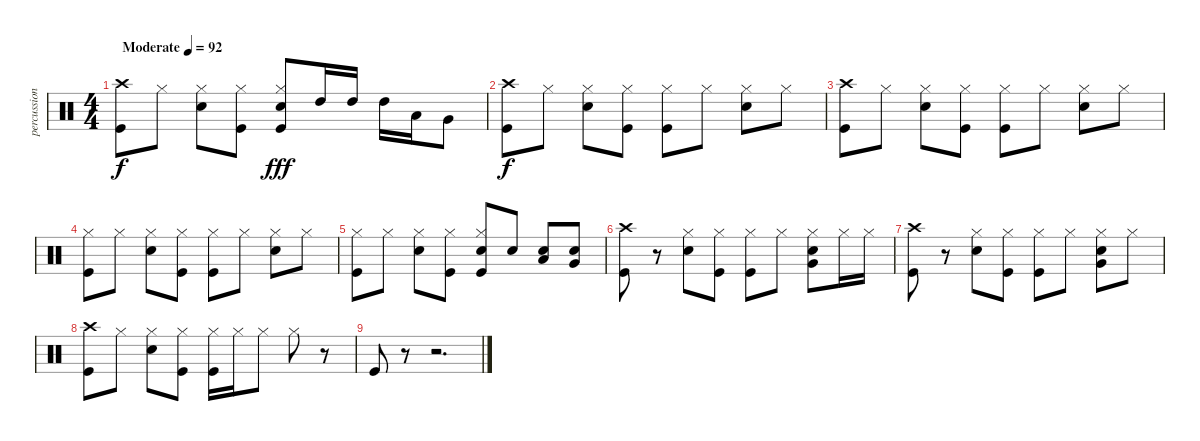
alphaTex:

\track ("percussion" "percussion") {instrument percussion}
\staff {score}
\articulation defaults
\ts (4 4)
\tempo (92 "Moderate")
\clef neutral
\ks c
("Crash high (hit)" "Kick (hit)").8{dy f} "Hi-Hat (closed)".8 ("Snare (hit) 2" "Hi-Hat (closed)").8 ("Hi-Hat (closed)" "Kick (hit)").8 ("Snare (hit) 2" "Hi-Hat (closed)" "Kick (hit)").8{dy fff} "High Tom (hit)".16 "High Tom (hit)".16 "High Tom (hit)".16 "Low Tom (hit)".16 "Very Low Tom (hit)".8 |
("Crash high (hit)" "Kick (hit)").8{dy f} "Hi-Hat (closed)".8 ("Snare (hit) 2" "Hi-Hat (closed)").8 ("Hi-Hat (closed)" "Kick (hit)").8 ("Hi-Hat (closed)" "Kick (hit)").8 "Hi-Hat (closed)".8 ("Snare (hit) 2" "Hi-Hat (closed)").8 "Hi-Hat (closed)".8 |
("Crash high (hit)" "Kick (hit)").8 "Hi-Hat (closed)".8 ("Snare (hit) 2" "Hi-Hat (closed)").8 ("Hi-Hat (closed)" "Kick (hit)").8 ("Hi-Hat (closed)" "Kick (hit)").8 "Hi-Hat (closed)".8 ("Snare (hit) 2" "Hi-Hat (closed)").8 "Hi-Hat (closed)".8 |
("Hi-Hat (closed)" "Kick (hit)").8 "Hi-Hat (closed)".8 ("Snare (hit) 2" "Hi-Hat (closed)").8 ("Hi-Hat (closed)" "Kick (hit)").8 ("Hi-Hat (closed)" "Kick (hit)").8 "Hi-Hat (closed)".8 ("Snare (hit) 2" "Hi-Hat (closed)").8 "Hi-Hat (closed)".8 |
("Hi-Hat (closed)" "Kick (hit)").8 "Hi-Hat (closed)".8 ("Snare (hit) 2" "Hi-Hat (closed)").8 ("Hi-Hat (closed)" "Kick (hit)").8 ("Snare (hit) 2" "Hi-Hat (closed)" "Kick (hit)").8 "Snare (hit) 2".8 ("Low Tom (hit)" "Snare (hit) 2").8 ("Very Low Tom (hit)" "Snare (hit) 2").8 |
("Crash high (hit)" "Kick (hit)").8 r.8 ("Snare (hit) 2" "Hi-Hat (closed)").8 ("Hi-Hat (closed)" "Kick (hit)").8 ("Hi-Hat (closed)" "Kick (hit)").8 "Hi-Hat (closed)".8 ("Very Low Tom (hit)" "Snare (hit) 2" "Hi-Hat (closed)").8 "Hi-Hat (closed)".16 "Hi-Hat (closed)".16 |
("Crash high (hit)" "Kick (hit)").8 r.8 ("Snare (hit) 2" "Hi-Hat (closed)").8 ("Hi-Hat (closed)" "Kick (hit)").8 ("Hi-Hat (closed)" "Kick (hit)").8 "Hi-Hat (closed)".8 ("Very Low Tom (hit)" "Snare (hit) 2" "Hi-Hat (closed)").8 "Hi-Hat (closed)".8 |
("Crash high (hit)" "Kick (hit)").8 "Hi-Hat (closed)".8 ("Snare (hit) 2" "Hi-Hat (closed)").8 ("Hi-Hat (closed)" "Kick (hit)").8 ("Hi-Hat (closed)" "Kick (hit)").16 "Hi-Hat (closed)".16 "Hi-Hat (closed)".8 "Hi-Hat (closed)".8 r.8 |
"Kick (hit)".8 r.8 r.2{d}
